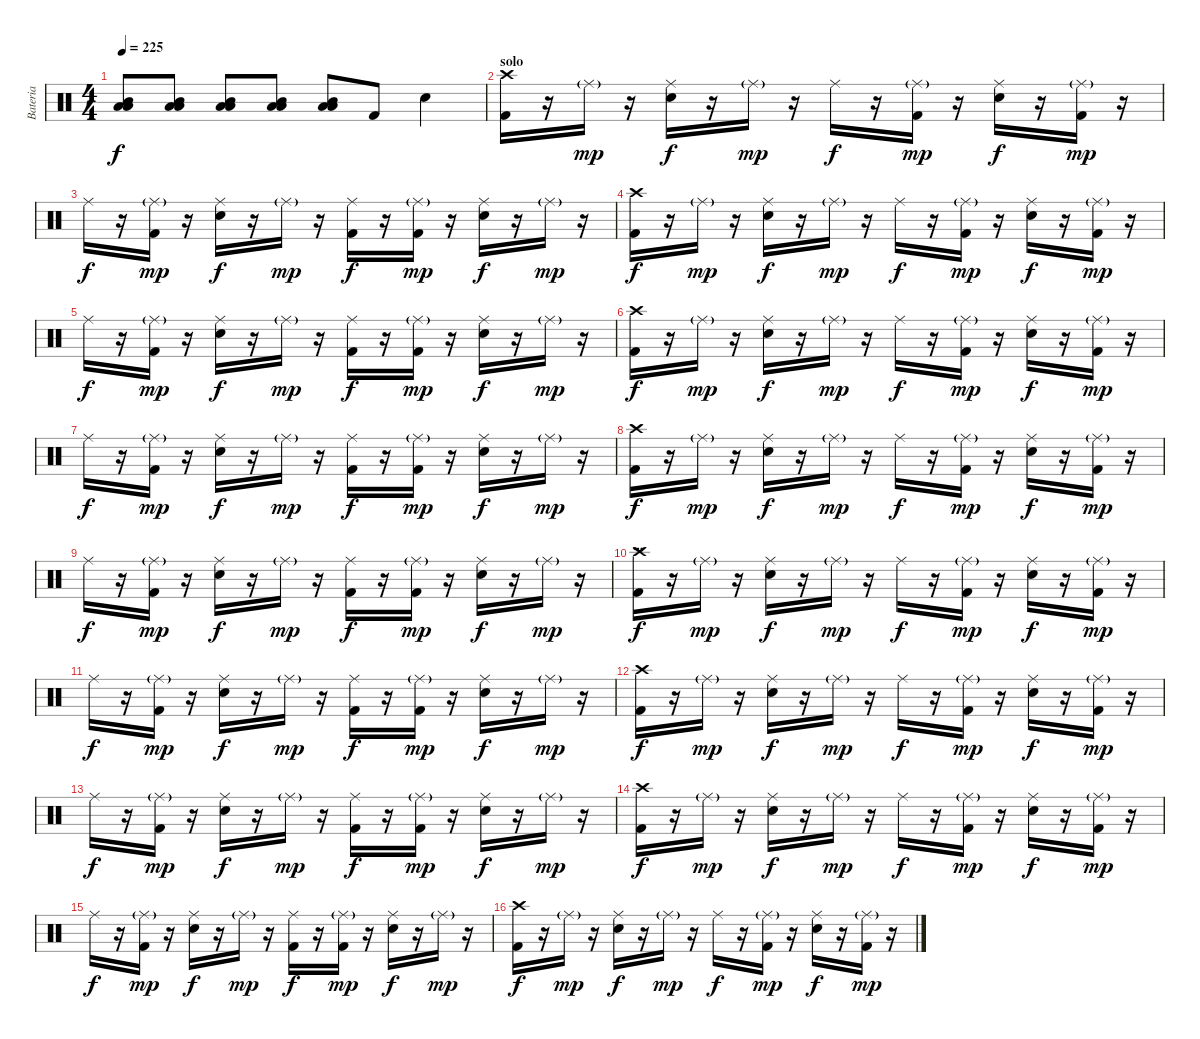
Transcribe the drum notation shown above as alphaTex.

\track ("Bateria" "Bateria") {instrument percussion}
\staff {score}
\articulation defaults
\ts (4 4)
\tempo 225
\clef neutral
\ks c
("Mid Tom (hit)" "Low Tom (hit)" "Low Tom (hit)").8{dy f} ("Mid Tom (hit)" "Low Tom (hit)" "Low Tom (hit)").8 ("Mid Tom (hit)" "Low Tom (hit)" "Low Tom (hit)").8 ("Mid Tom (hit)" "Low Tom (hit)" "Low Tom (hit)").8 ("Mid Tom (hit)" "Low Tom (hit)" "Low Tom (hit)").8 "Kick (hit) 2".8 "Electric Snare (hit)".4 |
\section ("" "solo")
("Crash high (hit)" "Kick (hit) 2").16 r.16 "Ride (middle)"{g}.16{dy mp} r.16 ("Ride (middle)" "Electric Snare (hit)").16{dy f} r.16 "Ride (middle)"{g}.16{dy mp} r.16 "Ride (middle)".16{dy f} r.16 ("Ride (middle)"{g} "Kick (hit) 2").16{dy mp} r.16 ("Ride (middle)" "Electric Snare (hit)").16{dy f} r.16 ("Ride (middle)"{g} "Kick (hit) 2").16{dy mp} r.16 |
"Ride (middle)".16{dy f} r.16 ("Ride (middle)"{g} "Kick (hit) 2").16{dy mp} r.16 ("Ride (middle)" "Electric Snare (hit)").16{dy f} r.16 "Ride (middle)"{g}.16{dy mp} r.16 ("Ride (middle)" "Kick (hit) 2").16{dy f} r.16 ("Ride (middle)"{g} "Kick (hit) 2").16{dy mp} r.16 ("Ride (middle)" "Electric Snare (hit)").16{dy f} r.16 "Ride (middle)"{g}.16{dy mp} r.16 |
("Crash high (hit)" "Kick (hit) 2").16{dy f} r.16 "Ride (middle)"{g}.16{dy mp} r.16 ("Ride (middle)" "Electric Snare (hit)").16{dy f} r.16 "Ride (middle)"{g}.16{dy mp} r.16 "Ride (middle)".16{dy f} r.16 ("Ride (middle)"{g} "Kick (hit) 2").16{dy mp} r.16 ("Ride (middle)" "Electric Snare (hit)").16{dy f} r.16 ("Ride (middle)"{g} "Kick (hit) 2").16{dy mp} r.16 |
"Ride (middle)".16{dy f} r.16 ("Ride (middle)"{g} "Kick (hit) 2").16{dy mp} r.16 ("Ride (middle)" "Electric Snare (hit)").16{dy f} r.16 "Ride (middle)"{g}.16{dy mp} r.16 ("Ride (middle)" "Kick (hit) 2").16{dy f} r.16 ("Ride (middle)"{g} "Kick (hit) 2").16{dy mp} r.16 ("Ride (middle)" "Electric Snare (hit)").16{dy f} r.16 "Ride (middle)"{g}.16{dy mp} r.16 |
("Crash high (hit)" "Kick (hit) 2").16{dy f} r.16 "Ride (middle)"{g}.16{dy mp} r.16 ("Ride (middle)" "Electric Snare (hit)").16{dy f} r.16 "Ride (middle)"{g}.16{dy mp} r.16 "Ride (middle)".16{dy f} r.16 ("Ride (middle)"{g} "Kick (hit) 2").16{dy mp} r.16 ("Ride (middle)" "Electric Snare (hit)").16{dy f} r.16 ("Ride (middle)"{g} "Kick (hit) 2").16{dy mp} r.16 |
"Ride (middle)".16{dy f} r.16 ("Ride (middle)"{g} "Kick (hit) 2").16{dy mp} r.16 ("Ride (middle)" "Electric Snare (hit)").16{dy f} r.16 "Ride (middle)"{g}.16{dy mp} r.16 ("Ride (middle)" "Kick (hit) 2").16{dy f} r.16 ("Ride (middle)"{g} "Kick (hit) 2").16{dy mp} r.16 ("Ride (middle)" "Electric Snare (hit)").16{dy f} r.16 "Ride (middle)"{g}.16{dy mp} r.16 |
("Crash high (hit)" "Kick (hit) 2").16{dy f} r.16 "Ride (middle)"{g}.16{dy mp} r.16 ("Ride (middle)" "Electric Snare (hit)").16{dy f} r.16 "Ride (middle)"{g}.16{dy mp} r.16 "Ride (middle)".16{dy f} r.16 ("Ride (middle)"{g} "Kick (hit) 2").16{dy mp} r.16 ("Ride (middle)" "Electric Snare (hit)").16{dy f} r.16 ("Ride (middle)"{g} "Kick (hit) 2").16{dy mp} r.16 |
"Ride (middle)".16{dy f} r.16 ("Ride (middle)"{g} "Kick (hit) 2").16{dy mp} r.16 ("Ride (middle)" "Electric Snare (hit)").16{dy f} r.16 "Ride (middle)"{g}.16{dy mp} r.16 ("Ride (middle)" "Kick (hit) 2").16{dy f} r.16 ("Ride (middle)"{g} "Kick (hit) 2").16{dy mp} r.16 ("Ride (middle)" "Electric Snare (hit)").16{dy f} r.16 "Ride (middle)"{g}.16{dy mp} r.16 |
\section ("" "...")
("Crash high (hit)" "Kick (hit) 2").16{dy f} r.16 "Ride (middle)"{g}.16{dy mp} r.16 ("Ride (middle)" "Electric Snare (hit)").16{dy f} r.16 "Ride (middle)"{g}.16{dy mp} r.16 "Ride (middle)".16{dy f} r.16 ("Ride (middle)"{g} "Kick (hit) 2").16{dy mp} r.16 ("Ride (middle)" "Electric Snare (hit)").16{dy f} r.16 ("Ride (middle)"{g} "Kick (hit) 2").16{dy mp} r.16 |
"Ride (middle)".16{dy f} r.16 ("Ride (middle)"{g} "Kick (hit) 2").16{dy mp} r.16 ("Ride (middle)" "Electric Snare (hit)").16{dy f} r.16 "Ride (middle)"{g}.16{dy mp} r.16 ("Ride (middle)" "Kick (hit) 2").16{dy f} r.16 ("Ride (middle)"{g} "Kick (hit) 2").16{dy mp} r.16 ("Ride (middle)" "Electric Snare (hit)").16{dy f} r.16 "Ride (middle)"{g}.16{dy mp} r.16 |
("Crash high (hit)" "Kick (hit) 2").16{dy f} r.16 "Ride (middle)"{g}.16{dy mp} r.16 ("Ride (middle)" "Electric Snare (hit)").16{dy f} r.16 "Ride (middle)"{g}.16{dy mp} r.16 "Ride (middle)".16{dy f} r.16 ("Ride (middle)"{g} "Kick (hit) 2").16{dy mp} r.16 ("Ride (middle)" "Electric Snare (hit)").16{dy f} r.16 ("Ride (middle)"{g} "Kick (hit) 2").16{dy mp} r.16 |
"Ride (middle)".16{dy f} r.16 ("Ride (middle)"{g} "Kick (hit) 2").16{dy mp} r.16 ("Ride (middle)" "Electric Snare (hit)").16{dy f} r.16 "Ride (middle)"{g}.16{dy mp} r.16 ("Ride (middle)" "Kick (hit) 2").16{dy f} r.16 ("Ride (middle)"{g} "Kick (hit) 2").16{dy mp} r.16 ("Ride (middle)" "Electric Snare (hit)").16{dy f} r.16 "Ride (middle)"{g}.16{dy mp} r.16 |
("Crash high (hit)" "Kick (hit) 2").16{dy f} r.16 "Ride (middle)"{g}.16{dy mp} r.16 ("Ride (middle)" "Electric Snare (hit)").16{dy f} r.16 "Ride (middle)"{g}.16{dy mp} r.16 "Ride (middle)".16{dy f} r.16 ("Ride (middle)"{g} "Kick (hit) 2").16{dy mp} r.16 ("Ride (middle)" "Electric Snare (hit)").16{dy f} r.16 ("Ride (middle)"{g} "Kick (hit) 2").16{dy mp} r.16 |
"Ride (middle)".16{dy f} r.16 ("Ride (middle)"{g} "Kick (hit) 2").16{dy mp} r.16 ("Ride (middle)" "Electric Snare (hit)").16{dy f} r.16 "Ride (middle)"{g}.16{dy mp} r.16 ("Ride (middle)" "Kick (hit) 2").16{dy f} r.16 ("Ride (middle)"{g} "Kick (hit) 2").16{dy mp} r.16 ("Ride (middle)" "Electric Snare (hit)").16{dy f} r.16 "Ride (middle)"{g}.16{dy mp} r.16 |
("Crash high (hit)" "Kick (hit) 2").16{dy f} r.16 "Ride (middle)"{g}.16{dy mp} r.16 ("Ride (middle)" "Electric Snare (hit)").16{dy f} r.16 "Ride (middle)"{g}.16{dy mp} r.16 "Ride (middle)".16{dy f} r.16 ("Ride (middle)"{g} "Kick (hit) 2").16{dy mp} r.16 ("Ride (middle)" "Electric Snare (hit)").16{dy f} r.16 ("Ride (middle)"{g} "Kick (hit) 2").16{dy mp} r.16
